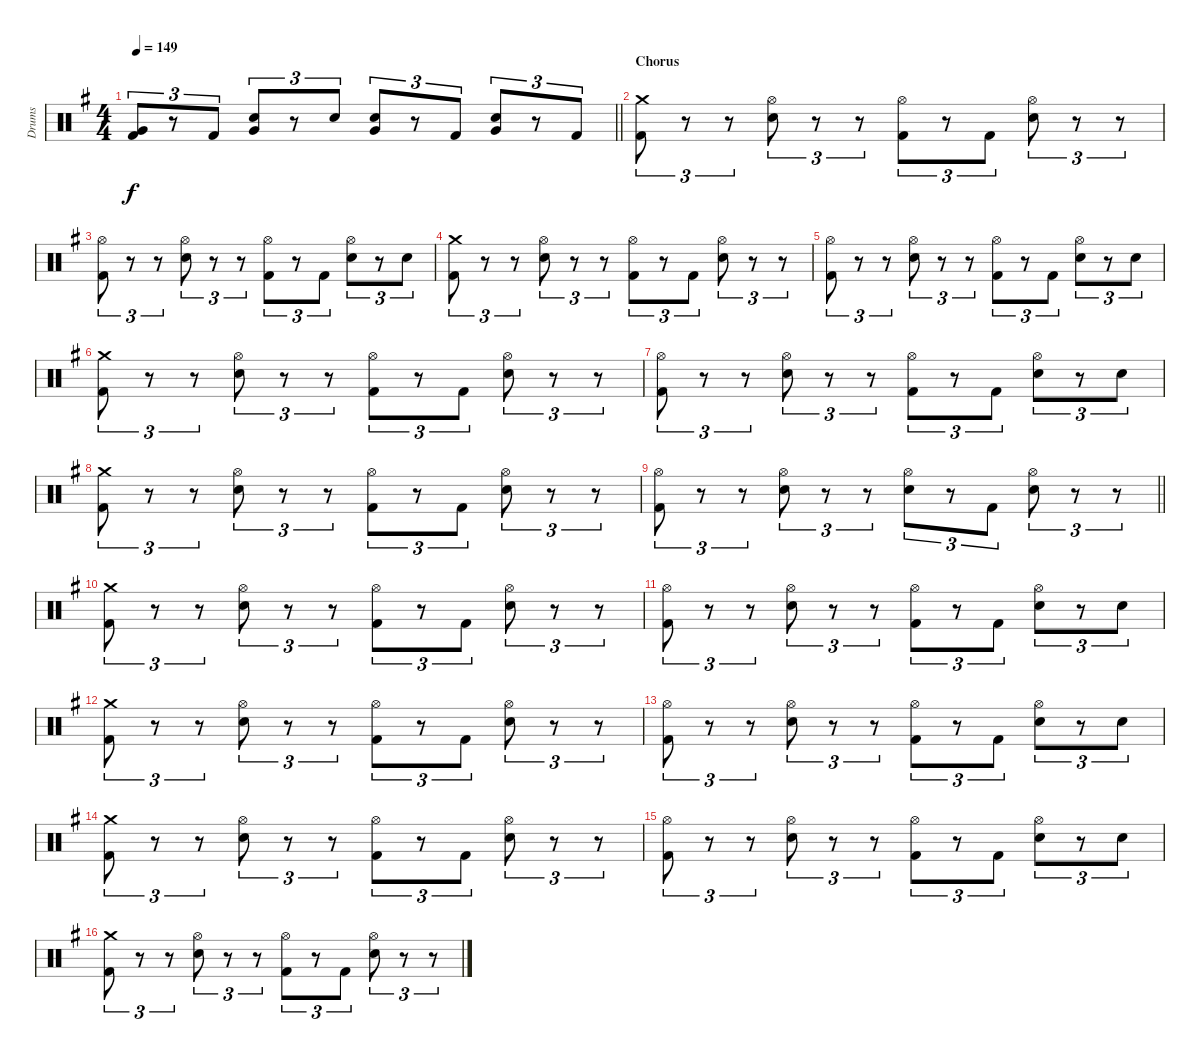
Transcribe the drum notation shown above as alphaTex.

\track ("Drums" "Drums") {instrument percussion}
\staff {score}
\articulation defaults
\ts (4 4)
\tempo 149
\clef neutral
\barLineRight lightlight
\ks g
("Very Low Tom (hit)" "Kick (hit) 2").8{tu (3 2) dy f} r.8{tu (3 2)} "Kick (hit) 2".8{tu (3 2)} ("Electric Snare (hit)" "Very Low Tom (hit)").8{tu (3 2)} r.8{tu (3 2)} "Electric Snare (hit)".8{tu (3 2)} ("Electric Snare (hit)" "Very Low Tom (hit)").8{tu (3 2)} r.8{tu (3 2)} "Kick (hit) 2".8{tu (3 2)} ("Electric Snare (hit)" "Very Low Tom (hit)").8{tu (3 2)} r.8{tu (3 2)} "Kick (hit) 2".8{tu (3 2)} |
\section ("" "Chorus")
("Crash medium (hit)" "Kick (hit) 2").8{tu (3 2)} r.8{tu (3 2)} r.8{tu (3 2)} ("Hi-Hat (open)" "Electric Snare (hit)").8{tu (3 2)} r.8{tu (3 2)} r.8{tu (3 2)} ("Hi-Hat (open)" "Kick (hit) 2").8{tu (3 2)} r.8{tu (3 2)} "Kick (hit) 2".8{tu (3 2)} ("Hi-Hat (open)" "Electric Snare (hit)").8{tu (3 2)} r.8{tu (3 2)} r.8{tu (3 2)} |
("Hi-Hat (open)" "Kick (hit) 2").8{tu (3 2)} r.8{tu (3 2)} r.8{tu (3 2)} ("Hi-Hat (open)" "Electric Snare (hit)").8{tu (3 2)} r.8{tu (3 2)} r.8{tu (3 2)} ("Hi-Hat (open)" "Kick (hit) 2").8{tu (3 2)} r.8{tu (3 2)} "Kick (hit) 2".8{tu (3 2)} ("Hi-Hat (open)" "Electric Snare (hit)").8{tu (3 2)} r.8{tu (3 2)} "Electric Snare (hit)".8{tu (3 2)} |
("Crash medium (hit)" "Kick (hit) 2").8{tu (3 2)} r.8{tu (3 2)} r.8{tu (3 2)} ("Hi-Hat (open)" "Electric Snare (hit)").8{tu (3 2)} r.8{tu (3 2)} r.8{tu (3 2)} ("Hi-Hat (open)" "Kick (hit) 2").8{tu (3 2)} r.8{tu (3 2)} "Kick (hit) 2".8{tu (3 2)} ("Hi-Hat (open)" "Electric Snare (hit)").8{tu (3 2)} r.8{tu (3 2)} r.8{tu (3 2)} |
("Hi-Hat (open)" "Kick (hit) 2").8{tu (3 2)} r.8{tu (3 2)} r.8{tu (3 2)} ("Hi-Hat (open)" "Electric Snare (hit)").8{tu (3 2)} r.8{tu (3 2)} r.8{tu (3 2)} ("Hi-Hat (open)" "Kick (hit) 2").8{tu (3 2)} r.8{tu (3 2)} "Kick (hit) 2".8{tu (3 2)} ("Hi-Hat (open)" "Electric Snare (hit)").8{tu (3 2)} r.8{tu (3 2)} "Electric Snare (hit)".8{tu (3 2)} |
("Crash medium (hit)" "Kick (hit) 2").8{tu (3 2)} r.8{tu (3 2)} r.8{tu (3 2)} ("Hi-Hat (open)" "Electric Snare (hit)").8{tu (3 2)} r.8{tu (3 2)} r.8{tu (3 2)} ("Hi-Hat (open)" "Kick (hit) 2").8{tu (3 2)} r.8{tu (3 2)} "Kick (hit) 2".8{tu (3 2)} ("Hi-Hat (open)" "Electric Snare (hit)").8{tu (3 2)} r.8{tu (3 2)} r.8{tu (3 2)} |
("Hi-Hat (open)" "Kick (hit) 2").8{tu (3 2)} r.8{tu (3 2)} r.8{tu (3 2)} ("Hi-Hat (open)" "Electric Snare (hit)").8{tu (3 2)} r.8{tu (3 2)} r.8{tu (3 2)} ("Hi-Hat (open)" "Kick (hit) 2").8{tu (3 2)} r.8{tu (3 2)} "Kick (hit) 2".8{tu (3 2)} ("Hi-Hat (open)" "Electric Snare (hit)").8{tu (3 2)} r.8{tu (3 2)} "Electric Snare (hit)".8{tu (3 2)} |
("Crash medium (hit)" "Kick (hit) 2").8{tu (3 2)} r.8{tu (3 2)} r.8{tu (3 2)} ("Hi-Hat (open)" "Electric Snare (hit)").8{tu (3 2)} r.8{tu (3 2)} r.8{tu (3 2)} ("Hi-Hat (open)" "Kick (hit) 2").8{tu (3 2)} r.8{tu (3 2)} "Kick (hit) 2".8{tu (3 2)} ("Hi-Hat (open)" "Electric Snare (hit)").8{tu (3 2)} r.8{tu (3 2)} r.8{tu (3 2)} |
\barLineRight lightlight
("Hi-Hat (open)" "Kick (hit) 2").8{tu (3 2)} r.8{tu (3 2)} r.8{tu (3 2)} ("Hi-Hat (open)" "Electric Snare (hit)").8{tu (3 2)} r.8{tu (3 2)} r.8{tu (3 2)} ("Hi-Hat (open)" "Electric Snare (hit)").8{tu (3 2)} r.8{tu (3 2)} "Kick (hit) 2".8{tu (3 2)} ("Hi-Hat (open)" "Electric Snare (hit)").8{tu (3 2)} r.8{tu (3 2)} r.8{tu (3 2)} |
("Crash medium (hit)" "Kick (hit) 2").8{tu (3 2)} r.8{tu (3 2)} r.8{tu (3 2)} ("Hi-Hat (open)" "Electric Snare (hit)").8{tu (3 2)} r.8{tu (3 2)} r.8{tu (3 2)} ("Hi-Hat (open)" "Kick (hit) 2").8{tu (3 2)} r.8{tu (3 2)} "Kick (hit) 2".8{tu (3 2)} ("Hi-Hat (open)" "Electric Snare (hit)").8{tu (3 2)} r.8{tu (3 2)} r.8{tu (3 2)} |
("Hi-Hat (open)" "Kick (hit) 2").8{tu (3 2)} r.8{tu (3 2)} r.8{tu (3 2)} ("Hi-Hat (open)" "Electric Snare (hit)").8{tu (3 2)} r.8{tu (3 2)} r.8{tu (3 2)} ("Hi-Hat (open)" "Kick (hit) 2").8{tu (3 2)} r.8{tu (3 2)} "Kick (hit) 2".8{tu (3 2)} ("Hi-Hat (open)" "Electric Snare (hit)").8{tu (3 2)} r.8{tu (3 2)} "Electric Snare (hit)".8{tu (3 2)} |
("Crash medium (hit)" "Kick (hit) 2").8{tu (3 2)} r.8{tu (3 2)} r.8{tu (3 2)} ("Hi-Hat (open)" "Electric Snare (hit)").8{tu (3 2)} r.8{tu (3 2)} r.8{tu (3 2)} ("Hi-Hat (open)" "Kick (hit) 2").8{tu (3 2)} r.8{tu (3 2)} "Kick (hit) 2".8{tu (3 2)} ("Hi-Hat (open)" "Electric Snare (hit)").8{tu (3 2)} r.8{tu (3 2)} r.8{tu (3 2)} |
("Hi-Hat (open)" "Kick (hit) 2").8{tu (3 2)} r.8{tu (3 2)} r.8{tu (3 2)} ("Hi-Hat (open)" "Electric Snare (hit)").8{tu (3 2)} r.8{tu (3 2)} r.8{tu (3 2)} ("Hi-Hat (open)" "Kick (hit) 2").8{tu (3 2)} r.8{tu (3 2)} "Kick (hit) 2".8{tu (3 2)} ("Hi-Hat (open)" "Electric Snare (hit)").8{tu (3 2)} r.8{tu (3 2)} "Electric Snare (hit)".8{tu (3 2)} |
("Crash medium (hit)" "Kick (hit) 2").8{tu (3 2)} r.8{tu (3 2)} r.8{tu (3 2)} ("Hi-Hat (open)" "Electric Snare (hit)").8{tu (3 2)} r.8{tu (3 2)} r.8{tu (3 2)} ("Hi-Hat (open)" "Kick (hit) 2").8{tu (3 2)} r.8{tu (3 2)} "Kick (hit) 2".8{tu (3 2)} ("Hi-Hat (open)" "Electric Snare (hit)").8{tu (3 2)} r.8{tu (3 2)} r.8{tu (3 2)} |
("Hi-Hat (open)" "Kick (hit) 2").8{tu (3 2)} r.8{tu (3 2)} r.8{tu (3 2)} ("Hi-Hat (open)" "Electric Snare (hit)").8{tu (3 2)} r.8{tu (3 2)} r.8{tu (3 2)} ("Hi-Hat (open)" "Kick (hit) 2").8{tu (3 2)} r.8{tu (3 2)} "Kick (hit) 2".8{tu (3 2)} ("Hi-Hat (open)" "Electric Snare (hit)").8{tu (3 2)} r.8{tu (3 2)} "Electric Snare (hit)".8{tu (3 2)} |
("Crash medium (hit)" "Kick (hit) 2").8{tu (3 2)} r.8{tu (3 2)} r.8{tu (3 2)} ("Hi-Hat (open)" "Electric Snare (hit)").8{tu (3 2)} r.8{tu (3 2)} r.8{tu (3 2)} ("Hi-Hat (open)" "Kick (hit) 2").8{tu (3 2)} r.8{tu (3 2)} "Kick (hit) 2".8{tu (3 2)} ("Hi-Hat (open)" "Electric Snare (hit)").8{tu (3 2)} r.8{tu (3 2)} r.8{tu (3 2)}
